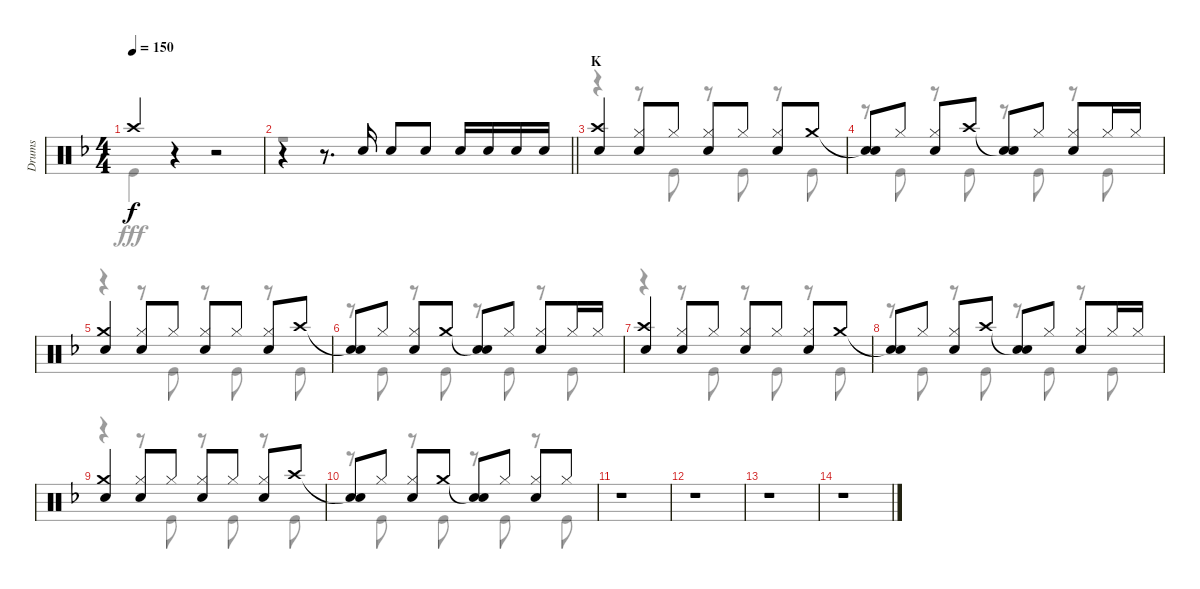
\track ("Drums" "Drums") {instrument percussion}
\staff {score}
\articulation defaults
\voice
\ts (4 4)
\tempo 150
\clef neutral
\ks f "Crash high (hit)".4{dy f}
r.4 r.2 |
\barLineRight lightlight
r.4 r.8{d} "Snare (hit) 2".16 "Snare (hit) 2".8 "Snare (hit) 2".8 "Snare (hit) 2".16 "Snare (hit) 2".16 "Snare (hit) 2".16 "Snare (hit) 2".16 |
\section ("" "K")
("Crash high (hit)" "Snare (hit) 2").4 ("Hi-Hat (closed)" "Snare (hit) 2").8 "Hi-Hat (closed)".8 ("Hi-Hat (closed)" "Snare (hit) 2").8 "Hi-Hat (closed)".8 ("Hi-Hat (closed)" "Snare (hit) 2").8 "Crash medium (hit)".8 |
("Snare (hit)"{t} "Snare (hit) 2").8 "Hi-Hat (closed)".8 ("Hi-Hat (closed)" "Snare (hit) 2").8 "Crash high (hit)".8 ("Snare (hit)"{t} "Snare (hit) 2").8 "Hi-Hat (closed)".8 ("Hi-Hat (closed)" "Snare (hit) 2").8 "Hi-Hat (closed)".16 "Hi-Hat (closed)".16 |
("Crash medium (hit)" "Snare (hit) 2").4 ("Hi-Hat (closed)" "Snare (hit) 2").8 "Hi-Hat (closed)".8 ("Hi-Hat (closed)" "Snare (hit) 2").8 "Hi-Hat (closed)".8 ("Hi-Hat (closed)" "Snare (hit) 2").8 "Crash high (hit)".8 |
("Snare (hit)"{t} "Snare (hit) 2").8 "Hi-Hat (closed)".8 ("Hi-Hat (closed)" "Snare (hit) 2").8 "Crash medium (hit)".8 ("Snare (hit)"{t} "Snare (hit) 2").8 "Hi-Hat (closed)".8 ("Hi-Hat (closed)" "Snare (hit) 2").8 "Hi-Hat (closed)".16 "Hi-Hat (closed)".16 |
("Crash high (hit)" "Snare (hit) 2").4 ("Hi-Hat (closed)" "Snare (hit) 2").8 "Hi-Hat (closed)".8 ("Hi-Hat (closed)" "Snare (hit) 2").8 "Hi-Hat (closed)".8 ("Hi-Hat (closed)" "Snare (hit) 2").8 "Crash medium (hit)".8 |
("Snare (hit)"{t} "Snare (hit) 2").8 "Hi-Hat (closed)".8 ("Hi-Hat (closed)" "Snare (hit) 2").8 "Crash high (hit)".8 ("Snare (hit)"{t} "Snare (hit) 2").8 "Hi-Hat (closed)".8 ("Hi-Hat (closed)" "Snare (hit) 2").8 "Hi-Hat (closed)".16 "Hi-Hat (closed)".16 |
("Crash medium (hit)" "Snare (hit) 2").4 ("Hi-Hat (closed)" "Snare (hit) 2").8 "Hi-Hat (closed)".8 ("Hi-Hat (closed)" "Snare (hit) 2").8 "Hi-Hat (closed)".8 ("Hi-Hat (closed)" "Snare (hit) 2").8 "Crash high (hit)".8 |
("Snare (hit)"{t} "Snare (hit) 2").8 "Hi-Hat (closed)".8 ("Hi-Hat (closed)" "Snare (hit) 2").8 "Crash medium (hit)".8 ("Snare (hit)"{t} "Snare (hit) 2").8 "Hi-Hat (closed)".8 ("Hi-Hat (closed)" "Snare (hit) 2").8 "Hi-Hat (closed)".8 |
r.1 |
r.1 |
r.1 |
r.1
\voice
\clef neutral
\ottava regular
\simile none
\ks f "Kick (hit)".4{dy fff}
r.4 r.2 |
\barLineRight lightlight
r.1 |
r.4 r.8 "Kick (hit)".8 r.8 "Kick (hit)".8 r.8 "Kick (hit)".8 |
r.8 "Kick (hit)".8 r.8 "Kick (hit)".8 r.8 "Kick (hit)".8 r.8 "Kick (hit)".8 |
r.4 r.8 "Kick (hit)".8 r.8 "Kick (hit)".8 r.8 "Kick (hit)".8 |
r.8 "Kick (hit)".8 r.8 "Kick (hit)".8 r.8 "Kick (hit)".8 r.8 "Kick (hit)".8 |
r.4 r.8 "Kick (hit)".8 r.8 "Kick (hit)".8 r.8 "Kick (hit)".8 |
r.8 "Kick (hit)".8 r.8 "Kick (hit)".8 r.8 "Kick (hit)".8 r.8 "Kick (hit)".8 |
r.4 r.8 "Kick (hit)".8 r.8 "Kick (hit)".8 r.8 "Kick (hit)".8 |
r.8 "Kick (hit)".8 r.8 "Kick (hit)".8 r.8 "Kick (hit)".8 r.8 "Kick (hit)".8 |
r.1 |
r.1 |
r.1 |
r.1
